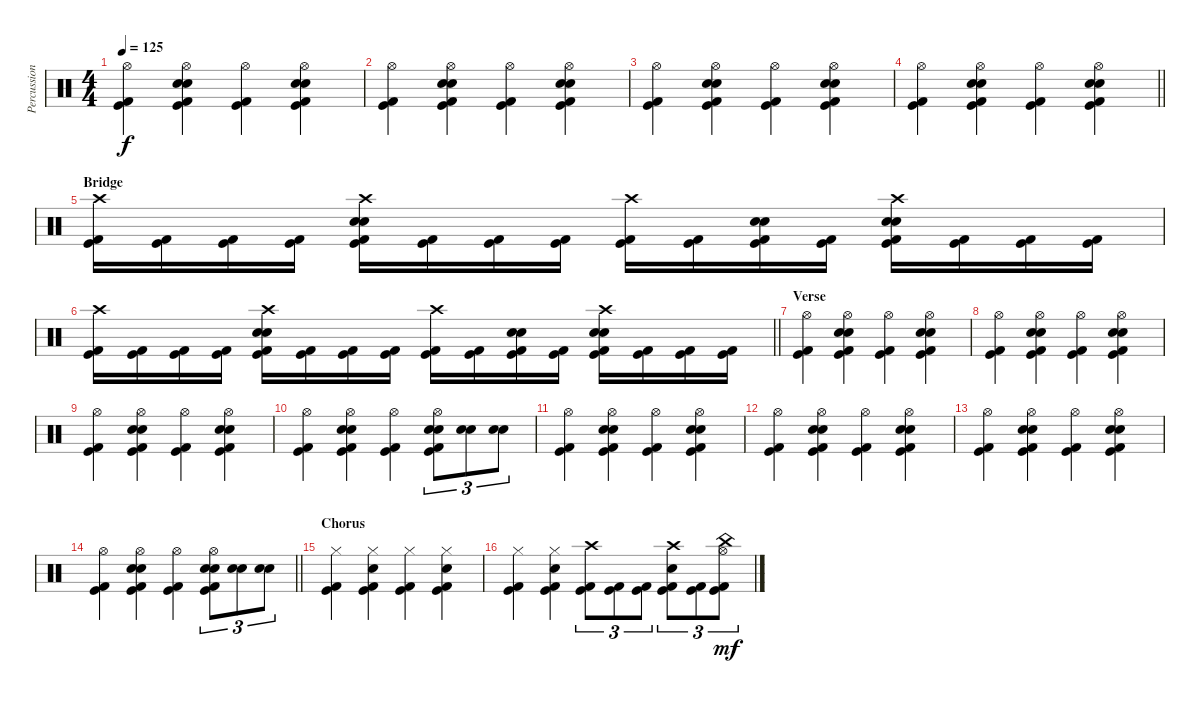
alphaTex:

\track ("Percussion" "Percussion") {instrument percussion}
\staff {score}
\articulation defaults
\ts (4 4)
\tempo 125
\clef neutral
\ks c
("Hi-Hat (open)" "Kick (hit) 2" "Kick (hit)").4{dy f} ("Electric Snare (hit)" "Hi-Hat (open)" "Electric Snare (hit)" "Kick (hit) 2" "Kick (hit)").4 ("Hi-Hat (open)" "Kick (hit) 2" "Kick (hit)").4 ("Electric Snare (hit)" "Hi-Hat (open)" "Electric Snare (hit)" "Kick (hit) 2" "Kick (hit)").4 |
("Hi-Hat (open)" "Kick (hit) 2" "Kick (hit)").4 ("Electric Snare (hit)" "Hi-Hat (open)" "Electric Snare (hit)" "Kick (hit) 2" "Kick (hit)").4 ("Hi-Hat (open)" "Kick (hit) 2" "Kick (hit)").4 ("Electric Snare (hit)" "Hi-Hat (open)" "Electric Snare (hit)" "Kick (hit) 2" "Kick (hit)").4 |
("Hi-Hat (open)" "Kick (hit) 2" "Kick (hit)").4 ("Electric Snare (hit)" "Hi-Hat (open)" "Electric Snare (hit)" "Kick (hit) 2" "Kick (hit)").4 ("Hi-Hat (open)" "Kick (hit) 2" "Kick (hit)").4 ("Electric Snare (hit)" "Hi-Hat (open)" "Electric Snare (hit)" "Kick (hit) 2" "Kick (hit)").4 |
\barLineRight lightlight
("Hi-Hat (open)" "Kick (hit) 2" "Kick (hit)").4 ("Electric Snare (hit)" "Hi-Hat (open)" "Electric Snare (hit)" "Kick (hit) 2" "Kick (hit)").4 ("Hi-Hat (open)" "Kick (hit) 2" "Kick (hit)").4 ("Electric Snare (hit)" "Hi-Hat (open)" "Electric Snare (hit)" "Kick (hit) 2" "Kick (hit)").4 |
\section ("" "Bridge")
("Crash high (hit)" "Kick (hit)" "Kick (hit) 2").16 ("Kick (hit)" "Kick (hit) 2").16 ("Kick (hit)" "Kick (hit) 2").16 ("Kick (hit)" "Kick (hit) 2").16 ("Crash high (hit)" "Electric Snare (hit)" "Electric Snare (hit)" "Kick (hit)" "Kick (hit) 2").16 ("Kick (hit)" "Kick (hit) 2").16 ("Kick (hit)" "Kick (hit) 2").16 ("Kick (hit)" "Kick (hit) 2").16 ("Crash high (hit)" "Kick (hit)" "Kick (hit) 2").16 ("Kick (hit)" "Kick (hit) 2").16 ("Electric Snare (hit)" "Electric Snare (hit)" "Kick (hit)" "Kick (hit) 2").16 ("Kick (hit)" "Kick (hit) 2").16 ("Crash high (hit)" "Electric Snare (hit)" "Electric Snare (hit)" "Kick (hit)" "Kick (hit) 2").16 ("Kick (hit)" "Kick (hit) 2").16 ("Kick (hit)" "Kick (hit) 2").16 ("Kick (hit)" "Kick (hit) 2").16 |
\barLineRight lightlight
("Crash high (hit)" "Kick (hit)" "Kick (hit) 2").16 ("Kick (hit)" "Kick (hit) 2").16 ("Kick (hit)" "Kick (hit) 2").16 ("Kick (hit)" "Kick (hit) 2").16 ("Crash high (hit)" "Electric Snare (hit)" "Electric Snare (hit)" "Kick (hit)" "Kick (hit) 2").16 ("Kick (hit)" "Kick (hit) 2").16 ("Kick (hit)" "Kick (hit) 2").16 ("Kick (hit)" "Kick (hit) 2").16 ("Crash high (hit)" "Kick (hit)" "Kick (hit) 2").16 ("Kick (hit)" "Kick (hit) 2").16 ("Electric Snare (hit)" "Electric Snare (hit)" "Kick (hit)" "Kick (hit) 2").16 ("Kick (hit)" "Kick (hit) 2").16 ("Crash high (hit)" "Electric Snare (hit)" "Electric Snare (hit)" "Kick (hit)" "Kick (hit) 2").16 ("Kick (hit)" "Kick (hit) 2").16 ("Kick (hit)" "Kick (hit) 2").16 ("Kick (hit)" "Kick (hit) 2").16 |
\section ("" "Verse")
("Hi-Hat (open)" "Kick (hit) 2" "Kick (hit)").4 ("Electric Snare (hit)" "Hi-Hat (open)" "Electric Snare (hit)" "Kick (hit) 2" "Kick (hit)").4 ("Hi-Hat (open)" "Kick (hit) 2" "Kick (hit)").4 ("Electric Snare (hit)" "Hi-Hat (open)" "Electric Snare (hit)" "Kick (hit) 2" "Kick (hit)").4 |
("Hi-Hat (open)" "Kick (hit) 2" "Kick (hit)").4 ("Electric Snare (hit)" "Hi-Hat (open)" "Electric Snare (hit)" "Kick (hit) 2" "Kick (hit)").4 ("Hi-Hat (open)" "Kick (hit) 2" "Kick (hit)").4 ("Electric Snare (hit)" "Hi-Hat (open)" "Electric Snare (hit)" "Kick (hit) 2" "Kick (hit)").4 |
("Hi-Hat (open)" "Kick (hit) 2" "Kick (hit)").4 ("Electric Snare (hit)" "Hi-Hat (open)" "Electric Snare (hit)" "Kick (hit) 2" "Kick (hit)").4 ("Hi-Hat (open)" "Kick (hit) 2" "Kick (hit)").4 ("Electric Snare (hit)" "Hi-Hat (open)" "Electric Snare (hit)" "Kick (hit) 2" "Kick (hit)").4 |
("Hi-Hat (open)" "Kick (hit) 2" "Kick (hit)").4 ("Electric Snare (hit)" "Hi-Hat (open)" "Electric Snare (hit)" "Kick (hit) 2" "Kick (hit)").4 ("Hi-Hat (open)" "Kick (hit) 2" "Kick (hit)").4 ("Electric Snare (hit)" "Hi-Hat (open)" "Electric Snare (hit)" "Kick (hit) 2" "Kick (hit)").8{tu (3 2)} ("Electric Snare (hit)" "Electric Snare (hit)").8{tu (3 2)} ("Electric Snare (hit)" "Electric Snare (hit)").8{tu (3 2)} |
("Hi-Hat (open)" "Kick (hit) 2" "Kick (hit)").4 ("Electric Snare (hit)" "Hi-Hat (open)" "Electric Snare (hit)" "Kick (hit) 2" "Kick (hit)").4 ("Hi-Hat (open)" "Kick (hit) 2" "Kick (hit)").4 ("Electric Snare (hit)" "Hi-Hat (open)" "Electric Snare (hit)" "Kick (hit) 2" "Kick (hit)").4 |
("Hi-Hat (open)" "Kick (hit) 2" "Kick (hit)").4 ("Electric Snare (hit)" "Hi-Hat (open)" "Electric Snare (hit)" "Kick (hit) 2" "Kick (hit)").4 ("Hi-Hat (open)" "Kick (hit) 2" "Kick (hit)").4 ("Electric Snare (hit)" "Hi-Hat (open)" "Electric Snare (hit)" "Kick (hit) 2" "Kick (hit)").4 |
("Hi-Hat (open)" "Kick (hit) 2" "Kick (hit)").4 ("Electric Snare (hit)" "Hi-Hat (open)" "Electric Snare (hit)" "Kick (hit) 2" "Kick (hit)").4 ("Hi-Hat (open)" "Kick (hit) 2" "Kick (hit)").4 ("Electric Snare (hit)" "Hi-Hat (open)" "Electric Snare (hit)" "Kick (hit) 2" "Kick (hit)").4 |
\barLineRight lightlight
("Hi-Hat (open)" "Kick (hit) 2" "Kick (hit)").4 ("Electric Snare (hit)" "Hi-Hat (open)" "Electric Snare (hit)" "Kick (hit) 2" "Kick (hit)").4 ("Hi-Hat (open)" "Kick (hit) 2" "Kick (hit)").4 ("Electric Snare (hit)" "Hi-Hat (open)" "Electric Snare (hit)" "Kick (hit) 2" "Kick (hit)").8{tu (3 2)} ("Electric Snare (hit)" "Electric Snare (hit)").8{tu (3 2)} ("Electric Snare (hit)" "Electric Snare (hit)").8{tu (3 2)} |
\section ("" "Chorus")
("Hi-Hat (closed)" "Kick (hit) 2" "Kick (hit)").4 ("Hi-Hat (closed)" "Electric Snare (hit)" "Kick (hit) 2" "Kick (hit)").4 ("Hi-Hat (closed)" "Kick (hit) 2" "Kick (hit)").4 ("Hi-Hat (closed)" "Electric Snare (hit)" "Kick (hit) 2" "Kick (hit)").4 |
("Hi-Hat (closed)" "Kick (hit) 2" "Kick (hit)").4 ("Hi-Hat (closed)" "Electric Snare (hit)" "Kick (hit) 2" "Kick (hit)").4 ("Crash high (hit)" "Kick (hit) 2" "Kick (hit)").8{tu (3 2)} ("Kick (hit) 2" "Kick (hit)").8{tu (3 2)} ("Kick (hit) 2" "Kick (hit)").8{tu (3 2)} ("Crash high (hit)" "Electric Snare (hit)" "Kick (hit) 2" "Kick (hit)").8{tu (3 2)} ("Kick (hit) 2" "Kick (hit)").8{tu (3 2)} ("China (hit)" "Hi-Hat (open)" "Kick (hit) 2" "Kick (hit)").8{tu (3 2) dy mf}
